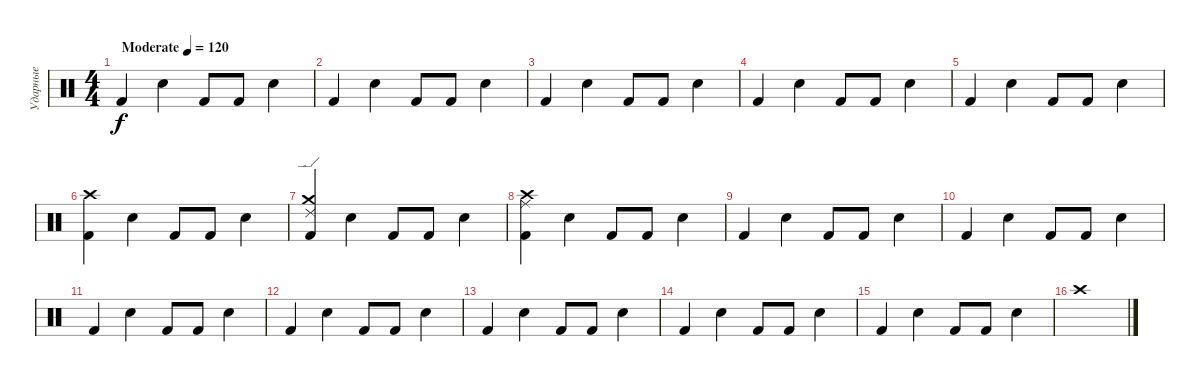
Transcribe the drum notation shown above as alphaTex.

\track ("Ударные" "Ударные") {instrument percussion}
\staff {score}
\articulation defaults
\ts (4 4)
\tempo (120 "Moderate")
\clef neutral
\ks c "Kick (hit) 2".4{dy f} "Snare (hit) 2".4 "Kick (hit) 2".8 "Kick (hit) 2".8 "Snare (hit) 2".4
|
"Kick (hit) 2".4 "Snare (hit) 2".4 "Kick (hit) 2".8 "Kick (hit) 2".8 "Snare (hit) 2".4 |
"Kick (hit) 2".4 "Snare (hit) 2".4 "Kick (hit) 2".8 "Kick (hit) 2".8 "Snare (hit) 2".4 |
"Kick (hit) 2".4 "Snare (hit) 2".4 "Kick (hit) 2".8 "Kick (hit) 2".8 "Snare (hit) 2".4 |
"Kick (hit) 2".4 "Snare (hit) 2".4 "Kick (hit) 2".8 "Kick (hit) 2".8 "Snare (hit) 2".4 |
("Kick (hit) 2" "Crash high (hit)").4 "Snare (hit) 2".4 "Kick (hit) 2".8 "Kick (hit) 2".8 "Snare (hit) 2".4 |
("Kick (hit) 2" "Crash medium (hit)" "Ride (edge) 2").4 "Snare (hit) 2".4 "Kick (hit) 2".8 "Kick (hit) 2".8 "Snare (hit) 2".4 |
("Kick (hit) 2" "Crash high (hit)" "Ride (middle)").4 "Snare (hit) 2".4 "Kick (hit) 2".8 "Kick (hit) 2".8 "Snare (hit) 2".4 |
"Kick (hit) 2".4 "Snare (hit) 2".4 "Kick (hit) 2".8 "Kick (hit) 2".8 "Snare (hit) 2".4 |
"Kick (hit) 2".4 "Snare (hit) 2".4 "Kick (hit) 2".8 "Kick (hit) 2".8 "Snare (hit) 2".4 |
"Kick (hit) 2".4 "Snare (hit) 2".4 "Kick (hit) 2".8 "Kick (hit) 2".8 "Snare (hit) 2".4 |
"Kick (hit) 2".4 "Snare (hit) 2".4 "Kick (hit) 2".8 "Kick (hit) 2".8 "Snare (hit) 2".4 |
"Kick (hit) 2".4 "Snare (hit) 2".4 "Kick (hit) 2".8 "Kick (hit) 2".8 "Snare (hit) 2".4 |
"Kick (hit) 2".4 "Snare (hit) 2".4 "Kick (hit) 2".8 "Kick (hit) 2".8 "Snare (hit) 2".4 |
"Kick (hit) 2".4 "Snare (hit) 2".4 "Kick (hit) 2".8 "Kick (hit) 2".8 "Snare (hit) 2".4 |
"Crash high (hit)".1
